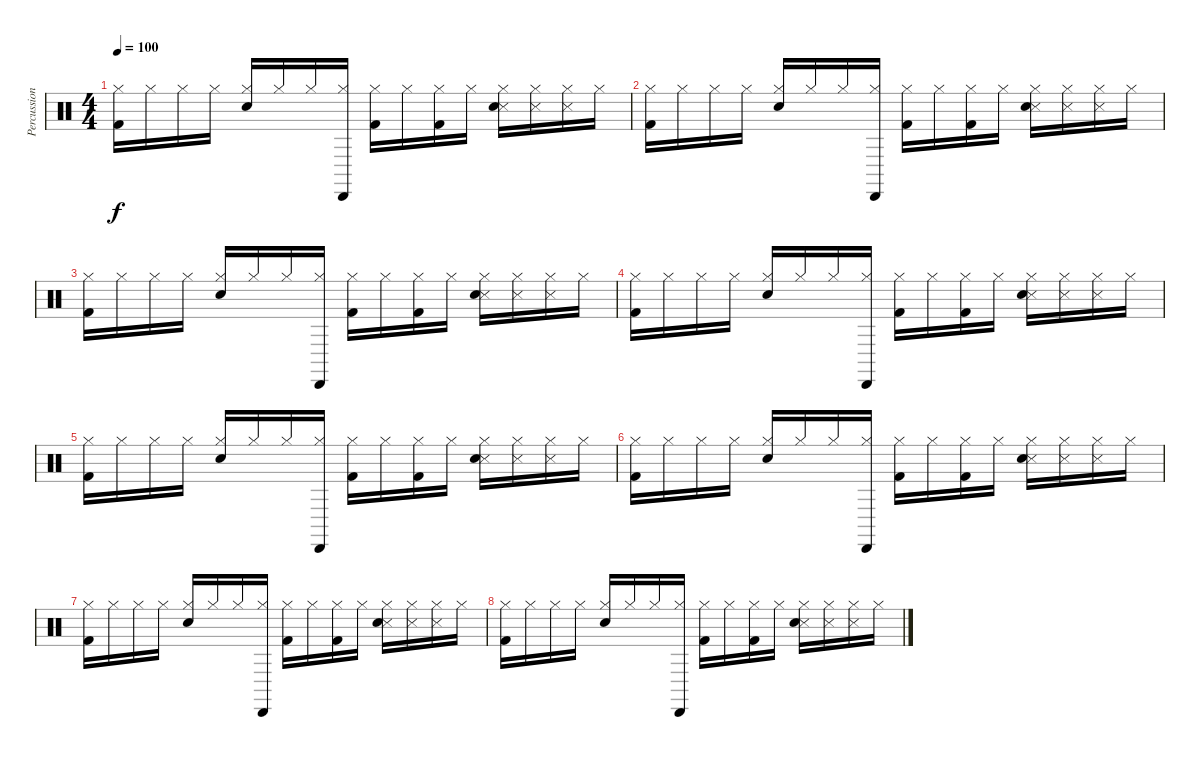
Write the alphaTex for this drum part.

\track ("Percussion" "Percussion") {instrument percussion}
\staff {score}
\articulation defaults
\ts (4 4)
\tempo 100
\clef neutral
\ks c
("Hi-Hat (closed)" "Kick (hit) 2").16{dy f} "Hi-Hat (closed)".16 "Hi-Hat (closed)".16 "Hi-Hat (closed)".16 ("Hi-Hat (closed)" "Snare (hit) 2").16 "Hi-Hat (closed)".16 "Hi-Hat (closed)".16 ("Cabasa (hit)" "Hi-Hat (closed)").16 ("Hi-Hat (closed)" "Kick (hit) 2").16 "Hi-Hat (closed)".16 ("Hi-Hat (closed)" "Kick (hit) 2").16 "Hi-Hat (closed)".16 ("Metronome (hit)" "Hi-Hat (closed)" "Snare (hit) 2").16 ("Metronome (hit)" "Hi-Hat (closed)").16 ("Metronome (hit)" "Hi-Hat (closed)").16 "Hi-Hat (closed)".16 |
("Hi-Hat (closed)" "Kick (hit) 2").16 "Hi-Hat (closed)".16 "Hi-Hat (closed)".16 "Hi-Hat (closed)".16 ("Hi-Hat (closed)" "Snare (hit) 2").16 "Hi-Hat (closed)".16 "Hi-Hat (closed)".16 ("Cabasa (hit)" "Hi-Hat (closed)").16 ("Hi-Hat (closed)" "Kick (hit) 2").16 "Hi-Hat (closed)".16 ("Hi-Hat (closed)" "Kick (hit) 2").16 "Hi-Hat (closed)".16 ("Metronome (hit)" "Hi-Hat (closed)" "Snare (hit) 2").16 ("Metronome (hit)" "Hi-Hat (closed)").16 ("Metronome (hit)" "Hi-Hat (closed)").16 "Hi-Hat (closed)".16 |
("Hi-Hat (closed)" "Kick (hit) 2").16 "Hi-Hat (closed)".16 "Hi-Hat (closed)".16 "Hi-Hat (closed)".16 ("Hi-Hat (closed)" "Snare (hit) 2").16 "Hi-Hat (closed)".16 "Hi-Hat (closed)".16 ("Cabasa (hit)" "Hi-Hat (closed)").16 ("Hi-Hat (closed)" "Kick (hit) 2").16 "Hi-Hat (closed)".16 ("Hi-Hat (closed)" "Kick (hit) 2").16 "Hi-Hat (closed)".16 ("Metronome (hit)" "Hi-Hat (closed)" "Snare (hit) 2").16 ("Metronome (hit)" "Hi-Hat (closed)").16 ("Metronome (hit)" "Hi-Hat (closed)").16 "Hi-Hat (closed)".16 |
("Hi-Hat (closed)" "Kick (hit) 2").16 "Hi-Hat (closed)".16 "Hi-Hat (closed)".16 "Hi-Hat (closed)".16 ("Hi-Hat (closed)" "Snare (hit) 2").16 "Hi-Hat (closed)".16 "Hi-Hat (closed)".16 ("Cabasa (hit)" "Hi-Hat (closed)").16 ("Hi-Hat (closed)" "Kick (hit) 2").16 "Hi-Hat (closed)".16 ("Hi-Hat (closed)" "Kick (hit) 2").16 "Hi-Hat (closed)".16 ("Metronome (hit)" "Hi-Hat (closed)" "Snare (hit) 2").16 ("Metronome (hit)" "Hi-Hat (closed)").16 ("Metronome (hit)" "Hi-Hat (closed)").16 "Hi-Hat (closed)".16 |
("Hi-Hat (closed)" "Kick (hit) 2").16 "Hi-Hat (closed)".16 "Hi-Hat (closed)".16 "Hi-Hat (closed)".16 ("Hi-Hat (closed)" "Snare (hit) 2").16 "Hi-Hat (closed)".16 "Hi-Hat (closed)".16 ("Cabasa (hit)" "Hi-Hat (closed)").16 ("Hi-Hat (closed)" "Kick (hit) 2").16 "Hi-Hat (closed)".16 ("Hi-Hat (closed)" "Kick (hit) 2").16 "Hi-Hat (closed)".16 ("Metronome (hit)" "Hi-Hat (closed)" "Snare (hit) 2").16 ("Metronome (hit)" "Hi-Hat (closed)").16 ("Metronome (hit)" "Hi-Hat (closed)").16 "Hi-Hat (closed)".16 |
("Hi-Hat (closed)" "Kick (hit) 2").16 "Hi-Hat (closed)".16 "Hi-Hat (closed)".16 "Hi-Hat (closed)".16 ("Hi-Hat (closed)" "Snare (hit) 2").16 "Hi-Hat (closed)".16 "Hi-Hat (closed)".16 ("Cabasa (hit)" "Hi-Hat (closed)").16 ("Hi-Hat (closed)" "Kick (hit) 2").16 "Hi-Hat (closed)".16 ("Hi-Hat (closed)" "Kick (hit) 2").16 "Hi-Hat (closed)".16 ("Metronome (hit)" "Hi-Hat (closed)" "Snare (hit) 2").16 ("Metronome (hit)" "Hi-Hat (closed)").16 ("Metronome (hit)" "Hi-Hat (closed)").16 "Hi-Hat (closed)".16 |
("Hi-Hat (closed)" "Kick (hit) 2").16 "Hi-Hat (closed)".16 "Hi-Hat (closed)".16 "Hi-Hat (closed)".16 ("Hi-Hat (closed)" "Snare (hit) 2").16 "Hi-Hat (closed)".16 "Hi-Hat (closed)".16 ("Cabasa (hit)" "Hi-Hat (closed)").16 ("Hi-Hat (closed)" "Kick (hit) 2").16 "Hi-Hat (closed)".16 ("Hi-Hat (closed)" "Kick (hit) 2").16 "Hi-Hat (closed)".16 ("Metronome (hit)" "Hi-Hat (closed)" "Snare (hit) 2").16 ("Metronome (hit)" "Hi-Hat (closed)").16 ("Metronome (hit)" "Hi-Hat (closed)").16 "Hi-Hat (closed)".16 |
("Hi-Hat (closed)" "Kick (hit) 2").16 "Hi-Hat (closed)".16 "Hi-Hat (closed)".16 "Hi-Hat (closed)".16 ("Hi-Hat (closed)" "Snare (hit) 2").16 "Hi-Hat (closed)".16 "Hi-Hat (closed)".16 ("Cabasa (hit)" "Hi-Hat (closed)").16 ("Hi-Hat (closed)" "Kick (hit) 2").16 "Hi-Hat (closed)".16 ("Hi-Hat (closed)" "Kick (hit) 2").16 "Hi-Hat (closed)".16 ("Metronome (hit)" "Hi-Hat (closed)" "Snare (hit) 2").16 ("Metronome (hit)" "Hi-Hat (closed)").16 ("Metronome (hit)" "Hi-Hat (closed)").16 "Hi-Hat (closed)".16
